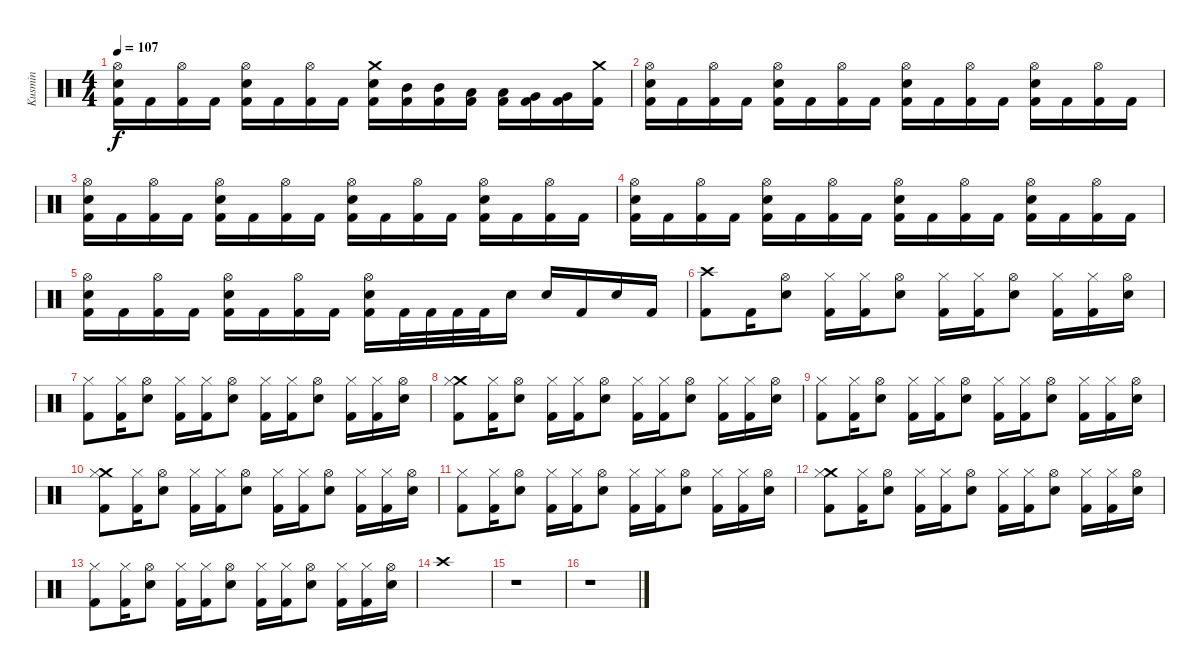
\track ("Kusmin" "Kusmin") {instrument percussion}
\staff {score}
\articulation defaults
\ts (4 4)
\tempo 107
\clef neutral
\ks c
("Hi-Hat (open)" "Snare (hit) 2" "Kick (hit) 2").16{dy f} "Kick (hit) 2".16 ("Hi-Hat (open)" "Kick (hit) 2").16 "Kick (hit) 2".16 ("Hi-Hat (open)" "Snare (hit) 2" "Kick (hit) 2").16 "Kick (hit) 2".16 ("Hi-Hat (open)" "Kick (hit) 2").16 "Kick (hit) 2".16 ("Crash medium (hit)" "Snare (hit) 2" "Kick (hit) 2").16 ("Mid Tom (hit)" "Kick (hit) 2").16 ("Mid Tom (hit)" "Kick (hit) 2").16 ("Low Tom (hit)" "Kick (hit) 2").16 ("Low Tom (hit)" "Kick (hit) 2").16 ("Very Low Tom (hit)" "Kick (hit) 2").16 ("Very Low Tom (hit)" "Kick (hit) 2").16 ("Crash medium (hit)" "Kick (hit) 2").16 |
("Hi-Hat (open)" "Snare (hit) 2" "Kick (hit) 2").16 "Kick (hit) 2".16 ("Hi-Hat (open)" "Kick (hit) 2").16 "Kick (hit) 2".16 ("Hi-Hat (open)" "Snare (hit) 2" "Kick (hit) 2").16 "Kick (hit) 2".16 ("Hi-Hat (open)" "Kick (hit) 2").16 "Kick (hit) 2".16 ("Hi-Hat (open)" "Snare (hit) 2" "Kick (hit) 2").16 "Kick (hit) 2".16 ("Hi-Hat (open)" "Kick (hit) 2").16 "Kick (hit) 2".16 ("Hi-Hat (open)" "Snare (hit) 2" "Kick (hit) 2").16 "Kick (hit) 2".16 ("Hi-Hat (open)" "Kick (hit) 2").16 "Kick (hit) 2".16 |
("Hi-Hat (open)" "Snare (hit) 2" "Kick (hit) 2").16 "Kick (hit) 2".16 ("Hi-Hat (open)" "Kick (hit) 2").16 "Kick (hit) 2".16 ("Hi-Hat (open)" "Snare (hit) 2" "Kick (hit) 2").16 "Kick (hit) 2".16 ("Hi-Hat (open)" "Kick (hit) 2").16 "Kick (hit) 2".16 ("Hi-Hat (open)" "Snare (hit) 2" "Kick (hit) 2").16 "Kick (hit) 2".16 ("Hi-Hat (open)" "Kick (hit) 2").16 "Kick (hit) 2".16 ("Hi-Hat (open)" "Snare (hit) 2" "Kick (hit) 2").16 "Kick (hit) 2".16 ("Hi-Hat (open)" "Kick (hit) 2").16 "Kick (hit) 2".16 |
("Hi-Hat (open)" "Snare (hit) 2" "Kick (hit) 2").16 "Kick (hit) 2".16 ("Hi-Hat (open)" "Kick (hit) 2").16 "Kick (hit) 2".16 ("Hi-Hat (open)" "Snare (hit) 2" "Kick (hit) 2").16 "Kick (hit) 2".16 ("Hi-Hat (open)" "Kick (hit) 2").16 "Kick (hit) 2".16 ("Hi-Hat (open)" "Snare (hit) 2" "Kick (hit) 2").16 "Kick (hit) 2".16 ("Hi-Hat (open)" "Kick (hit) 2").16 "Kick (hit) 2".16 ("Hi-Hat (open)" "Snare (hit) 2" "Kick (hit) 2").16 "Kick (hit) 2".16 ("Hi-Hat (open)" "Kick (hit) 2").16 "Kick (hit) 2".16 |
("Hi-Hat (open)" "Snare (hit) 2" "Kick (hit) 2").16 "Kick (hit) 2".16 ("Hi-Hat (open)" "Kick (hit) 2").16 "Kick (hit) 2".16 ("Hi-Hat (open)" "Snare (hit) 2" "Kick (hit) 2").16 "Kick (hit) 2".16 ("Hi-Hat (open)" "Kick (hit) 2").16 "Kick (hit) 2".16 ("Hi-Hat (open)" "Snare (hit) 2" "Kick (hit) 2").16 "Kick (hit) 2".32 "Kick (hit) 2".32 "Kick (hit) 2".32 "Kick (hit) 2".32 "Snare (hit) 2".16 "Snare (hit) 2".16 "Kick (hit) 2".16 "Snare (hit) 2".16 "Kick (hit) 2".16 |
("Crash high (hit)" "Kick (hit) 2").8 "Kick (hit) 2".16 ("Hi-Hat (open)" "Snare (hit) 2").8 ("Hi-Hat (closed)" "Kick (hit) 2").16 ("Hi-Hat (closed)" "Kick (hit) 2").16 ("Hi-Hat (open)" "Snare (hit) 2").8 ("Hi-Hat (closed)" "Kick (hit) 2").16 ("Hi-Hat (closed)" "Kick (hit) 2").16 ("Hi-Hat (open)" "Snare (hit) 2").8 ("Hi-Hat (closed)" "Kick (hit) 2").16 ("Hi-Hat (closed)" "Kick (hit) 2").16 ("Hi-Hat (open)" "Snare (hit) 2").16 |
("Hi-Hat (closed)" "Kick (hit) 2").8 ("Hi-Hat (closed)" "Kick (hit) 2").16 ("Hi-Hat (open)" "Snare (hit) 2").8 ("Hi-Hat (closed)" "Kick (hit) 2").16 ("Hi-Hat (closed)" "Kick (hit) 2").16 ("Hi-Hat (open)" "Snare (hit) 2").8 ("Hi-Hat (closed)" "Kick (hit) 2").16 ("Hi-Hat (closed)" "Kick (hit) 2").16 ("Hi-Hat (open)" "Snare (hit) 2").8 ("Hi-Hat (closed)" "Kick (hit) 2").16 ("Hi-Hat (closed)" "Kick (hit) 2").16 ("Hi-Hat (open)" "Snare (hit) 2").16 |
("Crash medium (hit)" "Hi-Hat (closed)" "Kick (hit) 2").8 ("Hi-Hat (closed)" "Kick (hit) 2").16 ("Hi-Hat (open)" "Snare (hit) 2").8 ("Hi-Hat (closed)" "Kick (hit) 2").16 ("Hi-Hat (closed)" "Kick (hit) 2").16 ("Hi-Hat (open)" "Snare (hit) 2").8 ("Hi-Hat (closed)" "Kick (hit) 2").16 ("Hi-Hat (closed)" "Kick (hit) 2").16 ("Hi-Hat (open)" "Snare (hit) 2").8 ("Hi-Hat (closed)" "Kick (hit) 2").16 ("Hi-Hat (closed)" "Kick (hit) 2").16 ("Hi-Hat (open)" "Snare (hit) 2").16 |
("Hi-Hat (closed)" "Kick (hit) 2").8 ("Hi-Hat (closed)" "Kick (hit) 2").16 ("Hi-Hat (open)" "Snare (hit) 2").8 ("Hi-Hat (closed)" "Kick (hit) 2").16 ("Hi-Hat (closed)" "Kick (hit) 2").16 ("Hi-Hat (open)" "Snare (hit) 2").8 ("Hi-Hat (closed)" "Kick (hit) 2").16 ("Hi-Hat (closed)" "Kick (hit) 2").16 ("Hi-Hat (open)" "Snare (hit) 2").8 ("Hi-Hat (closed)" "Kick (hit) 2").16 ("Hi-Hat (closed)" "Kick (hit) 2").16 ("Hi-Hat (open)" "Snare (hit) 2").16 |
("Crash medium (hit)" "Hi-Hat (closed)" "Kick (hit) 2").8 ("Hi-Hat (closed)" "Kick (hit) 2").16 ("Hi-Hat (open)" "Snare (hit) 2").8 ("Hi-Hat (closed)" "Kick (hit) 2").16 ("Hi-Hat (closed)" "Kick (hit) 2").16 ("Hi-Hat (open)" "Snare (hit) 2").8 ("Hi-Hat (closed)" "Kick (hit) 2").16 ("Hi-Hat (closed)" "Kick (hit) 2").16 ("Hi-Hat (open)" "Snare (hit) 2").8 ("Hi-Hat (closed)" "Kick (hit) 2").16 ("Hi-Hat (closed)" "Kick (hit) 2").16 ("Hi-Hat (open)" "Snare (hit) 2").16 |
("Hi-Hat (closed)" "Kick (hit) 2").8 ("Hi-Hat (closed)" "Kick (hit) 2").16 ("Hi-Hat (open)" "Snare (hit) 2").8 ("Hi-Hat (closed)" "Kick (hit) 2").16 ("Hi-Hat (closed)" "Kick (hit) 2").16 ("Hi-Hat (open)" "Snare (hit) 2").8 ("Hi-Hat (closed)" "Kick (hit) 2").16 ("Hi-Hat (closed)" "Kick (hit) 2").16 ("Hi-Hat (open)" "Snare (hit) 2").8 ("Hi-Hat (closed)" "Kick (hit) 2").16 ("Hi-Hat (closed)" "Kick (hit) 2").16 ("Hi-Hat (open)" "Snare (hit) 2").16 |
("Crash medium (hit)" "Hi-Hat (closed)" "Kick (hit) 2").8 ("Hi-Hat (closed)" "Kick (hit) 2").16 ("Hi-Hat (open)" "Snare (hit) 2").8 ("Hi-Hat (closed)" "Kick (hit) 2").16 ("Hi-Hat (closed)" "Kick (hit) 2").16 ("Hi-Hat (open)" "Snare (hit) 2").8 ("Hi-Hat (closed)" "Kick (hit) 2").16 ("Hi-Hat (closed)" "Kick (hit) 2").16 ("Hi-Hat (open)" "Snare (hit) 2").8 ("Hi-Hat (closed)" "Kick (hit) 2").16 ("Hi-Hat (closed)" "Kick (hit) 2").16 ("Hi-Hat (open)" "Snare (hit) 2").16 |
("Hi-Hat (closed)" "Kick (hit) 2").8 ("Hi-Hat (closed)" "Kick (hit) 2").16 ("Hi-Hat (open)" "Snare (hit) 2").8 ("Hi-Hat (closed)" "Kick (hit) 2").16 ("Hi-Hat (closed)" "Kick (hit) 2").16 ("Hi-Hat (open)" "Snare (hit) 2").8 ("Hi-Hat (closed)" "Kick (hit) 2").16 ("Hi-Hat (closed)" "Kick (hit) 2").16 ("Hi-Hat (open)" "Snare (hit) 2").8 ("Hi-Hat (closed)" "Kick (hit) 2").16 ("Hi-Hat (closed)" "Kick (hit) 2").16 ("Hi-Hat (open)" "Snare (hit) 2").16 |
"Crash high (hit)".1 |
r.1 |
r.1
